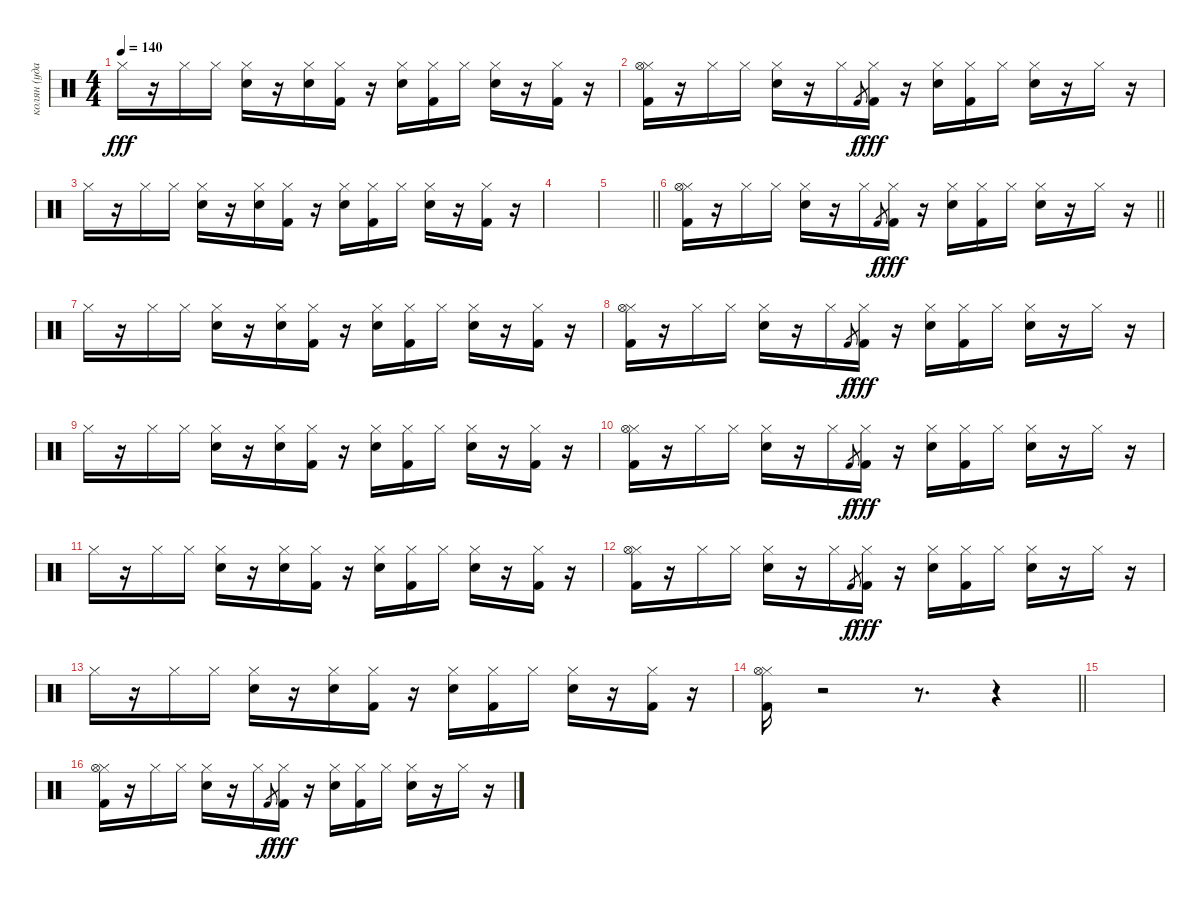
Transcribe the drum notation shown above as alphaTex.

\track ("колян (ударные)" "колян (уда") {instrument percussion}
\staff {score}
\articulation defaults
\ts (4 4)
\tempo 140
\clef neutral
\ks c "Hi-Hat (closed)".16{dy fff}
r.16 "Hi-Hat (closed)".16 "Hi-Hat (closed)".16 ("Hi-Hat (closed)" "Electric Snare (hit)").16 r.16 ("Hi-Hat (closed)" "Electric Snare (hit)").16 ("Hi-Hat (closed)" "Kick (hit) 2").16 r.16 ("Hi-Hat (closed)" "Electric Snare (hit)").16 ("Hi-Hat (closed)" "Kick (hit) 2").16 "Hi-Hat (closed)".16 ("Hi-Hat (closed)" "Electric Snare (hit)").16 r.16 ("Hi-Hat (closed)" "Kick (hit) 2").16 r.16 |
("Hi-Hat (closed)" "Hi-Hat (open)" "Kick (hit) 2").16 r.16 "Hi-Hat (closed)".16 "Hi-Hat (closed)".16 ("Hi-Hat (closed)" "Electric Snare (hit)").16 r.16 "Hi-Hat (closed)".16 "Kick (hit) 2".8{gr dy f} ("Hi-Hat (closed)" "Kick (hit) 2").16{dy fff} r.16 ("Hi-Hat (closed)" "Electric Snare (hit)").16 ("Hi-Hat (closed)" "Kick (hit) 2").16 "Hi-Hat (closed)".16 ("Hi-Hat (closed)" "Electric Snare (hit)").16 r.16 "Hi-Hat (closed)".16 r.16 |
"Hi-Hat (closed)".16 r.16 "Hi-Hat (closed)".16 "Hi-Hat (closed)".16 ("Hi-Hat (closed)" "Electric Snare (hit)").16 r.16 ("Hi-Hat (closed)" "Electric Snare (hit)").16 ("Hi-Hat (closed)" "Kick (hit) 2").16 r.16 ("Hi-Hat (closed)" "Electric Snare (hit)").16 ("Hi-Hat (closed)" "Kick (hit) 2").16 "Hi-Hat (closed)".16 ("Hi-Hat (closed)" "Electric Snare (hit)").16 r.16 ("Hi-Hat (closed)" "Kick (hit) 2").16 r.16 |
|
\barLineRight lightlight
|
\barLineRight lightlight
("Hi-Hat (closed)" "Hi-Hat (open)" "Kick (hit) 2").16 r.16 "Hi-Hat (closed)".16 "Hi-Hat (closed)".16 ("Hi-Hat (closed)" "Electric Snare (hit)").16 r.16 "Hi-Hat (closed)".16 "Kick (hit) 2".8{gr dy f} ("Hi-Hat (closed)" "Kick (hit) 2").16{dy fff} r.16 ("Hi-Hat (closed)" "Electric Snare (hit)").16 ("Hi-Hat (closed)" "Kick (hit) 2").16 "Hi-Hat (closed)".16 ("Hi-Hat (closed)" "Electric Snare (hit)").16 r.16 "Hi-Hat (closed)".16 r.16 |
"Hi-Hat (closed)".16 r.16 "Hi-Hat (closed)".16 "Hi-Hat (closed)".16 ("Hi-Hat (closed)" "Electric Snare (hit)").16 r.16 ("Hi-Hat (closed)" "Electric Snare (hit)").16 ("Hi-Hat (closed)" "Kick (hit) 2").16 r.16 ("Hi-Hat (closed)" "Electric Snare (hit)").16 ("Hi-Hat (closed)" "Kick (hit) 2").16 "Hi-Hat (closed)".16 ("Hi-Hat (closed)" "Electric Snare (hit)").16 r.16 ("Hi-Hat (closed)" "Kick (hit) 2").16 r.16 |
("Hi-Hat (closed)" "Hi-Hat (open)" "Kick (hit) 2").16 r.16 "Hi-Hat (closed)".16 "Hi-Hat (closed)".16 ("Hi-Hat (closed)" "Electric Snare (hit)").16 r.16 "Hi-Hat (closed)".16 "Kick (hit) 2".8{gr dy f} ("Hi-Hat (closed)" "Kick (hit) 2").16{dy fff} r.16 ("Hi-Hat (closed)" "Electric Snare (hit)").16 ("Hi-Hat (closed)" "Kick (hit) 2").16 "Hi-Hat (closed)".16 ("Hi-Hat (closed)" "Electric Snare (hit)").16 r.16 "Hi-Hat (closed)".16 r.16 |
"Hi-Hat (closed)".16 r.16 "Hi-Hat (closed)".16 "Hi-Hat (closed)".16 ("Hi-Hat (closed)" "Electric Snare (hit)").16 r.16 ("Hi-Hat (closed)" "Electric Snare (hit)").16 ("Hi-Hat (closed)" "Kick (hit) 2").16 r.16 ("Hi-Hat (closed)" "Electric Snare (hit)").16 ("Hi-Hat (closed)" "Kick (hit) 2").16 "Hi-Hat (closed)".16 ("Hi-Hat (closed)" "Electric Snare (hit)").16 r.16 ("Hi-Hat (closed)" "Kick (hit) 2").16 r.16 |
("Hi-Hat (closed)" "Hi-Hat (open)" "Kick (hit) 2").16 r.16 "Hi-Hat (closed)".16 "Hi-Hat (closed)".16 ("Hi-Hat (closed)" "Electric Snare (hit)").16 r.16 "Hi-Hat (closed)".16 "Kick (hit) 2".8{gr dy f} ("Hi-Hat (closed)" "Kick (hit) 2").16{dy fff} r.16 ("Hi-Hat (closed)" "Electric Snare (hit)").16 ("Hi-Hat (closed)" "Kick (hit) 2").16 "Hi-Hat (closed)".16 ("Hi-Hat (closed)" "Electric Snare (hit)").16 r.16 "Hi-Hat (closed)".16 r.16 |
"Hi-Hat (closed)".16 r.16 "Hi-Hat (closed)".16 "Hi-Hat (closed)".16 ("Hi-Hat (closed)" "Electric Snare (hit)").16 r.16 ("Hi-Hat (closed)" "Electric Snare (hit)").16 ("Hi-Hat (closed)" "Kick (hit) 2").16 r.16 ("Hi-Hat (closed)" "Electric Snare (hit)").16 ("Hi-Hat (closed)" "Kick (hit) 2").16 "Hi-Hat (closed)".16 ("Hi-Hat (closed)" "Electric Snare (hit)").16 r.16 ("Hi-Hat (closed)" "Kick (hit) 2").16 r.16 |
("Hi-Hat (closed)" "Hi-Hat (open)" "Kick (hit) 2").16 r.16 "Hi-Hat (closed)".16 "Hi-Hat (closed)".16 ("Hi-Hat (closed)" "Electric Snare (hit)").16 r.16 "Hi-Hat (closed)".16 "Kick (hit) 2".8{gr dy f} ("Hi-Hat (closed)" "Kick (hit) 2").16{dy fff} r.16 ("Hi-Hat (closed)" "Electric Snare (hit)").16 ("Hi-Hat (closed)" "Kick (hit) 2").16 "Hi-Hat (closed)".16 ("Hi-Hat (closed)" "Electric Snare (hit)").16 r.16 "Hi-Hat (closed)".16 r.16 |
"Hi-Hat (closed)".16 r.16 "Hi-Hat (closed)".16 "Hi-Hat (closed)".16 ("Hi-Hat (closed)" "Electric Snare (hit)").16 r.16 ("Hi-Hat (closed)" "Electric Snare (hit)").16 ("Hi-Hat (closed)" "Kick (hit) 2").16 r.16 ("Hi-Hat (closed)" "Electric Snare (hit)").16 ("Hi-Hat (closed)" "Kick (hit) 2").16 "Hi-Hat (closed)".16 ("Hi-Hat (closed)" "Electric Snare (hit)").16 r.16 ("Hi-Hat (closed)" "Kick (hit) 2").16 r.16 |
\barLineRight lightlight
("Hi-Hat (closed)" "Hi-Hat (open)" "Kick (hit) 2").16 r.2 r.8{d} r.4 |
|
("Hi-Hat (closed)" "Hi-Hat (open)" "Kick (hit) 2").16 r.16 "Hi-Hat (closed)".16 "Hi-Hat (closed)".16 ("Hi-Hat (closed)" "Electric Snare (hit)").16 r.16 "Hi-Hat (closed)".16 "Kick (hit) 2".8{gr dy f} ("Hi-Hat (closed)" "Kick (hit) 2").16{dy fff} r.16 ("Hi-Hat (closed)" "Electric Snare (hit)").16 ("Hi-Hat (closed)" "Kick (hit) 2").16 "Hi-Hat (closed)".16 ("Hi-Hat (closed)" "Electric Snare (hit)").16 r.16 "Hi-Hat (closed)".16 r.16
